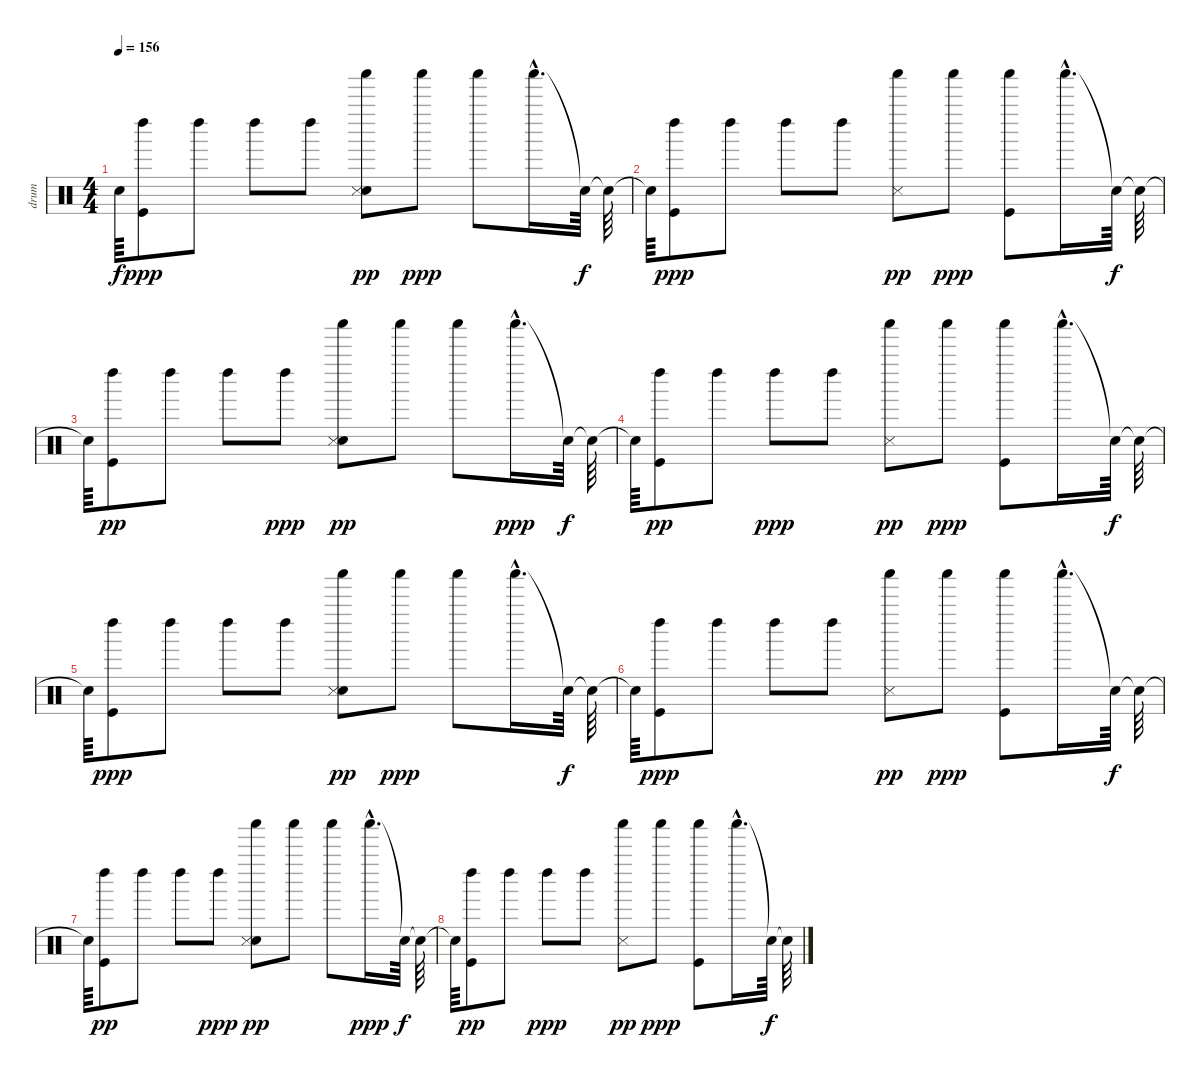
\track ("drum" "drum") {instrument percussion}
\staff {score}
\articulation defaults
\ts (4 4)
\tempo 156
\clef neutral
\ks c "Snare (hit)"{t}.64{dy f}
("Left Maraca (hit)" "Kick (hit)").8{dy ppp} "Left Maraca (hit)".8 "Left Maraca (hit)".8 "Left Maraca (hit)".8 ("Snare (hit) 2" "Shaker (hit)" "Snare (side stick) 3").8{dy pp} "Shaker (hit)".8{dy ppp} "Shaker (hit)".8 "Shaker (hit)"{hac}.16{d} "Snare (hit)"{t}.64{dy f} "Snare (hit)"{t}.64 |
"Snare (hit)"{t}.64 ("Left Maraca (hit)" "Kick (hit)").8{dy ppp} "Left Maraca (hit)".8 "Left Maraca (hit)".8 "Left Maraca (hit)".8 ("Snare (side stick) 3" "Shaker (hit)").8{dy pp} "Shaker (hit)".8{dy ppp} ("Kick (hit)" "Shaker (hit)").8 "Shaker (hit)"{hac}.16{d} "Snare (hit)"{t}.64{dy f} "Snare (hit)"{t}.64 |
"Snare (hit)"{t}.64 ("Left Maraca (hit)" "Kick (hit)").8{dy pp} "Left Maraca (hit)".8 "Left Maraca (hit)".8 "Left Maraca (hit)".8{dy ppp} ("Snare (hit) 2" "Snare (side stick) 3" "Shaker (hit)").8{dy pp} "Shaker (hit)".8 "Shaker (hit)".8 "Shaker (hit)"{hac}.16{d dy ppp} "Snare (hit)"{t}.64{dy f} "Snare (hit)"{t}.64 |
"Snare (hit)"{t}.64 ("Kick (hit)" "Left Maraca (hit)").8{dy pp} "Left Maraca (hit)".8 "Left Maraca (hit)".8{dy ppp} "Left Maraca (hit)".8 ("Snare (side stick) 3" "Shaker (hit)").8{dy pp} "Shaker (hit)".8{dy ppp} ("Kick (hit)" "Shaker (hit)").8 "Shaker (hit)"{hac}.16{d} "Snare (hit)"{t}.64{dy f} "Snare (hit)"{t}.64 |
"Snare (hit)"{t}.64 ("Left Maraca (hit)" "Kick (hit)").8{dy ppp} "Left Maraca (hit)".8 "Left Maraca (hit)".8 "Left Maraca (hit)".8 ("Snare (hit) 2" "Shaker (hit)" "Snare (side stick) 3").8{dy pp} "Shaker (hit)".8{dy ppp} "Shaker (hit)".8 "Shaker (hit)"{hac}.16{d} "Snare (hit)"{t}.64{dy f} "Snare (hit)"{t}.64 |
"Snare (hit)"{t}.64 ("Left Maraca (hit)" "Kick (hit)").8{dy ppp} "Left Maraca (hit)".8 "Left Maraca (hit)".8 "Left Maraca (hit)".8 ("Snare (side stick) 3" "Shaker (hit)").8{dy pp} "Shaker (hit)".8{dy ppp} ("Kick (hit)" "Shaker (hit)").8 "Shaker (hit)"{hac}.16{d} "Snare (hit)"{t}.64{dy f} "Snare (hit)"{t}.64 |
"Snare (hit)"{t}.64 ("Left Maraca (hit)" "Kick (hit)").8{dy pp} "Left Maraca (hit)".8 "Left Maraca (hit)".8 "Left Maraca (hit)".8{dy ppp} ("Snare (hit) 2" "Snare (side stick) 3" "Shaker (hit)").8{dy pp} "Shaker (hit)".8 "Shaker (hit)".8 "Shaker (hit)"{hac}.16{d dy ppp} "Snare (hit)"{t}.64{dy f} "Snare (hit)"{t}.64 |
"Snare (hit)"{t}.64 ("Kick (hit)" "Left Maraca (hit)").8{dy pp} "Left Maraca (hit)".8 "Left Maraca (hit)".8{dy ppp} "Left Maraca (hit)".8 ("Snare (side stick) 3" "Shaker (hit)").8{dy pp} "Shaker (hit)".8{dy ppp} ("Kick (hit)" "Shaker (hit)").8 "Shaker (hit)"{hac}.16{d} "Snare (hit)"{t}.64{dy f} "Snare (hit)"{t}.64
